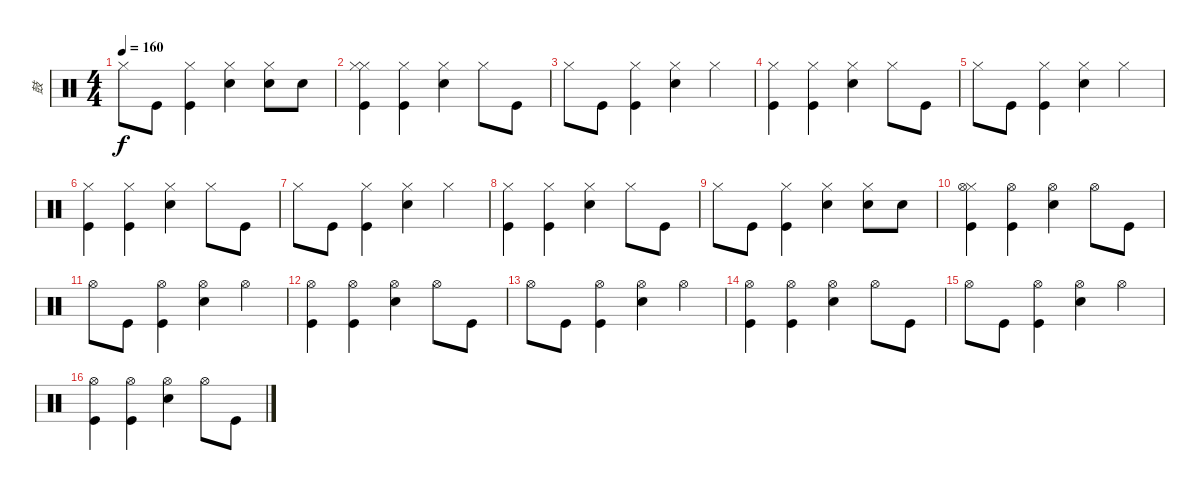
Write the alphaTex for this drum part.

\track ("鼓" "鼓") {instrument percussion}
\staff {score}
\articulation defaults
\ts (4 4)
\tempo 160
\clef neutral
\ks c "Hi-Hat (closed)".8{dy f} "Kick (hit)".8
("Hi-Hat (closed)" "Kick (hit)").4 ("Hi-Hat (closed)" "Electric Snare (hit)").4 ("Hi-Hat (closed)" "Electric Snare (hit)").8 "Electric Snare (hit)".8 |
("Hi-Hat (closed)" "Hi-Hat (closed)" "Kick (hit)").4 ("Hi-Hat (closed)" "Kick (hit)").4 ("Hi-Hat (closed)" "Electric Snare (hit)").4 "Hi-Hat (closed)".8 "Kick (hit)".8 |
"Hi-Hat (closed)".8 "Kick (hit)".8 ("Hi-Hat (closed)" "Kick (hit)").4 ("Hi-Hat (closed)" "Electric Snare (hit)").4 "Hi-Hat (closed)".4 |
("Hi-Hat (closed)" "Kick (hit)").4 ("Hi-Hat (closed)" "Kick (hit)").4 ("Hi-Hat (closed)" "Electric Snare (hit)").4 "Hi-Hat (closed)".8 "Kick (hit)".8 |
"Hi-Hat (closed)".8 "Kick (hit)".8 ("Hi-Hat (closed)" "Kick (hit)").4 ("Hi-Hat (closed)" "Electric Snare (hit)").4 "Hi-Hat (closed)".4 |
("Hi-Hat (closed)" "Kick (hit)").4 ("Hi-Hat (closed)" "Kick (hit)").4 ("Hi-Hat (closed)" "Electric Snare (hit)").4 "Hi-Hat (closed)".8 "Kick (hit)".8 |
"Hi-Hat (closed)".8 "Kick (hit)".8 ("Hi-Hat (closed)" "Kick (hit)").4 ("Hi-Hat (closed)" "Electric Snare (hit)").4 "Hi-Hat (closed)".4 |
("Hi-Hat (closed)" "Kick (hit)").4 ("Hi-Hat (closed)" "Kick (hit)").4 ("Hi-Hat (closed)" "Electric Snare (hit)").4 "Hi-Hat (closed)".8 "Kick (hit)".8 |
"Hi-Hat (closed)".8 "Kick (hit)".8 ("Hi-Hat (closed)" "Kick (hit)").4 ("Hi-Hat (closed)" "Electric Snare (hit)").4 ("Hi-Hat (closed)" "Electric Snare (hit)").8 "Electric Snare (hit)".8 |
("Hi-Hat (closed)" "Hi-Hat (open)" "Kick (hit)").4 ("Hi-Hat (open)" "Kick (hit)").4 ("Hi-Hat (open)" "Electric Snare (hit)").4 "Hi-Hat (open)".8 "Kick (hit)".8 |
"Hi-Hat (open)".8 "Kick (hit)".8 ("Hi-Hat (open)" "Kick (hit)").4 ("Hi-Hat (open)" "Electric Snare (hit)").4 "Hi-Hat (open)".4 |
("Hi-Hat (open)" "Kick (hit)").4 ("Hi-Hat (open)" "Kick (hit)").4 ("Hi-Hat (open)" "Electric Snare (hit)").4 "Hi-Hat (open)".8 "Kick (hit)".8 |
"Hi-Hat (open)".8 "Kick (hit)".8 ("Hi-Hat (open)" "Kick (hit)").4 ("Hi-Hat (open)" "Electric Snare (hit)").4 "Hi-Hat (open)".4 |
("Hi-Hat (open)" "Kick (hit)").4 ("Hi-Hat (open)" "Kick (hit)").4 ("Hi-Hat (open)" "Electric Snare (hit)").4 "Hi-Hat (open)".8 "Kick (hit)".8 |
"Hi-Hat (open)".8 "Kick (hit)".8 ("Hi-Hat (open)" "Kick (hit)").4 ("Hi-Hat (open)" "Electric Snare (hit)").4 "Hi-Hat (open)".4 |
("Hi-Hat (open)" "Kick (hit)").4 ("Hi-Hat (open)" "Kick (hit)").4 ("Hi-Hat (open)" "Electric Snare (hit)").4 "Hi-Hat (open)".8 "Kick (hit)".8
